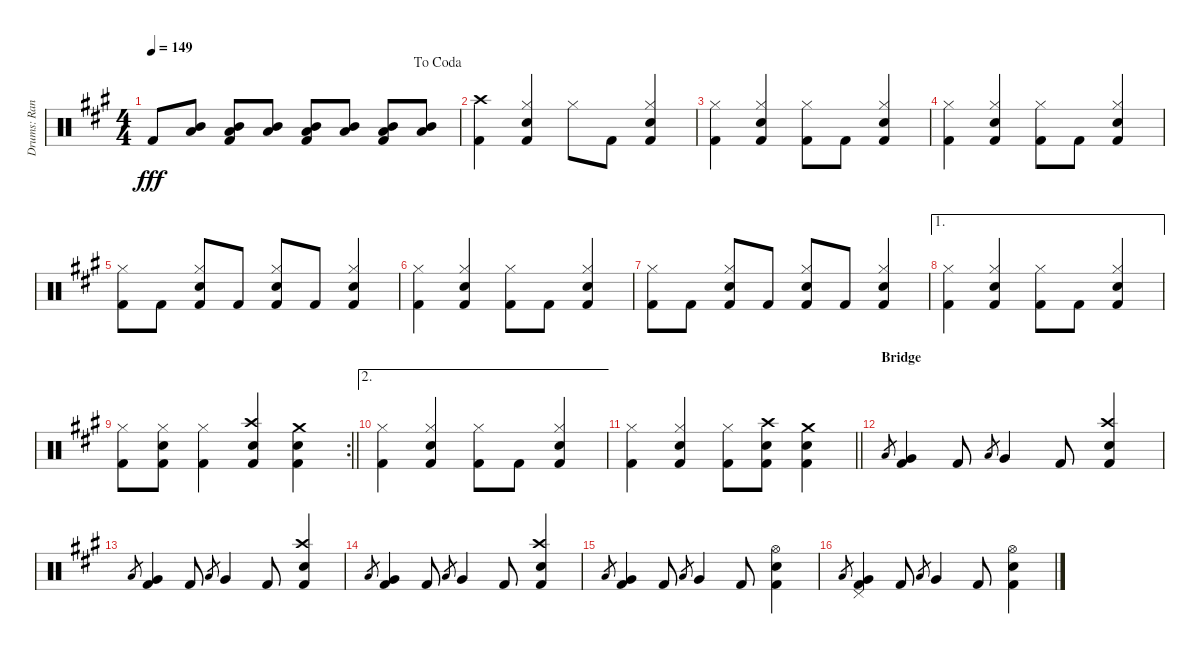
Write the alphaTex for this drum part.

\track ("Drums: Randy" "Drums: Ran") {instrument percussion}
\staff {score}
\articulation defaults
\ts (4 4)
\jump dacoda
\tempo 149
\clef neutral
\ks a "Kick (hit) 2".8{dy fff}
("Mid Tom (hit)" "Low Tom (hit)").8 ("Mid Tom (hit)" "Kick (hit) 2" "Low Tom (hit)").8 ("Mid Tom (hit)" "Low Tom (hit)").8 ("Mid Tom (hit)" "Kick (hit) 2" "Low Tom (hit)").8 ("Mid Tom (hit)" "Low Tom (hit)").8 ("Mid Tom (hit)" "Kick (hit) 2" "Low Tom (hit)").8 ("Mid Tom (hit)" "Low Tom (hit)").8 |
("Crash high (hit)" "Kick (hit) 2").4 ("Hi-Hat (closed)" "Snare (hit) 2" "Kick (hit) 2").4 "Hi-Hat (closed)".8 "Kick (hit) 2".8 ("Hi-Hat (closed)" "Snare (hit) 2" "Kick (hit) 2").4 |
("Hi-Hat (closed)" "Kick (hit) 2").4 ("Hi-Hat (closed)" "Snare (hit) 2" "Kick (hit) 2").4 ("Hi-Hat (closed)" "Kick (hit) 2").8 "Kick (hit) 2".8 ("Hi-Hat (closed)" "Snare (hit) 2" "Kick (hit) 2").4 |
("Hi-Hat (closed)" "Kick (hit) 2").4 ("Hi-Hat (closed)" "Snare (hit) 2" "Kick (hit) 2").4 ("Hi-Hat (closed)" "Kick (hit) 2").8 "Kick (hit) 2".8 ("Hi-Hat (closed)" "Snare (hit) 2" "Kick (hit) 2").4 |
("Hi-Hat (closed)" "Kick (hit) 2").8 "Kick (hit) 2".8 ("Hi-Hat (closed)" "Snare (hit) 2" "Kick (hit) 2").8 "Kick (hit) 2".8 ("Hi-Hat (closed)" "Snare (hit) 2" "Kick (hit) 2").8 "Kick (hit) 2".8 ("Hi-Hat (closed)" "Snare (hit) 2" "Kick (hit) 2").4 |
("Hi-Hat (closed)" "Kick (hit) 2").4 ("Hi-Hat (closed)" "Snare (hit) 2" "Kick (hit) 2").4 ("Hi-Hat (closed)" "Kick (hit) 2").8 "Kick (hit) 2".8 ("Hi-Hat (closed)" "Snare (hit) 2" "Kick (hit) 2").4 |
("Hi-Hat (closed)" "Kick (hit) 2").8 "Kick (hit) 2".8 ("Hi-Hat (closed)" "Snare (hit) 2" "Kick (hit) 2").8 "Kick (hit) 2".8 ("Hi-Hat (closed)" "Snare (hit) 2" "Kick (hit) 2").8 "Kick (hit) 2".8 ("Hi-Hat (closed)" "Snare (hit) 2" "Kick (hit) 2").4 |
\ae 1
("Hi-Hat (closed)" "Kick (hit) 2").4 ("Hi-Hat (closed)" "Snare (hit) 2" "Kick (hit) 2").4 ("Hi-Hat (closed)" "Kick (hit) 2").8 "Kick (hit) 2".8 ("Hi-Hat (closed)" "Snare (hit) 2" "Kick (hit) 2").4 |
\rc 2
\barLineRight lightlight
("Hi-Hat (closed)" "Kick (hit) 2").8 ("Hi-Hat (closed)" "Snare (hit) 2" "Kick (hit) 2").8 ("Hi-Hat (closed)" "Kick (hit) 2").4 ("Crash high (hit)" "Snare (hit) 2" "Kick (hit) 2").4 ("Crash medium (hit)" "Snare (hit) 2" "Kick (hit) 2").4 |
\ae 2
("Hi-Hat (closed)" "Kick (hit) 2").4 ("Hi-Hat (closed)" "Snare (hit) 2" "Kick (hit) 2").4 ("Hi-Hat (closed)" "Kick (hit) 2").8 "Kick (hit) 2".8 ("Hi-Hat (closed)" "Snare (hit) 2" "Kick (hit) 2").4 |
\barLineRight lightlight
("Hi-Hat (closed)" "Kick (hit) 2").4 ("Hi-Hat (closed)" "Snare (hit) 2" "Kick (hit) 2").4 ("Hi-Hat (closed)" "Kick (hit) 2").8 ("Crash high (hit)" "Snare (hit) 2" "Kick (hit) 2").8 ("Crash medium (hit)" "Snare (hit) 2" "Kick (hit) 2").4 |
\section ("" "Bridge")
"Low Tom (hit)".8{gr} ("Very Low Tom (hit)" "Kick (hit) 2").4 "Kick (hit) 2".8 "Low Tom (hit)".8{gr} "Very Low Tom (hit)".4 "Kick (hit) 2".8 ("Crash high (hit)" "Snare (hit) 2" "Kick (hit) 2").4 |
"Low Tom (hit)".8{gr} ("Very Low Tom (hit)" "Kick (hit) 2").4 "Kick (hit) 2".8 "Low Tom (hit)".8{gr} "Very Low Tom (hit)".4 "Kick (hit) 2".8 ("Crash high (hit)" "Snare (hit) 2" "Kick (hit) 2").4 |
"Low Tom (hit)".8{gr} ("Very Low Tom (hit)" "Kick (hit) 2").4 "Kick (hit) 2".8 "Low Tom (hit)".8{gr} "Very Low Tom (hit)".4 "Kick (hit) 2".8 ("Crash high (hit)" "Snare (hit) 2" "Kick (hit) 2").4 |
"Low Tom (hit)".8{gr} ("Very Low Tom (hit)" "Kick (hit) 2").4 "Kick (hit) 2".8 "Low Tom (hit)".8{gr} "Very Low Tom (hit)".4 "Kick (hit) 2".8 ("Hi-Hat (open)" "Snare (hit) 2" "Kick (hit) 2").4 |
"Low Tom (hit)".8{gr} ("Pedal Hi-Hat (hit)" "Very Low Tom (hit)" "Kick (hit) 2").4 "Kick (hit) 2".8 "Low Tom (hit)".8{gr} "Very Low Tom (hit)".4 "Kick (hit) 2".8 ("Hi-Hat (open)" "Snare (hit) 2" "Kick (hit) 2").4
